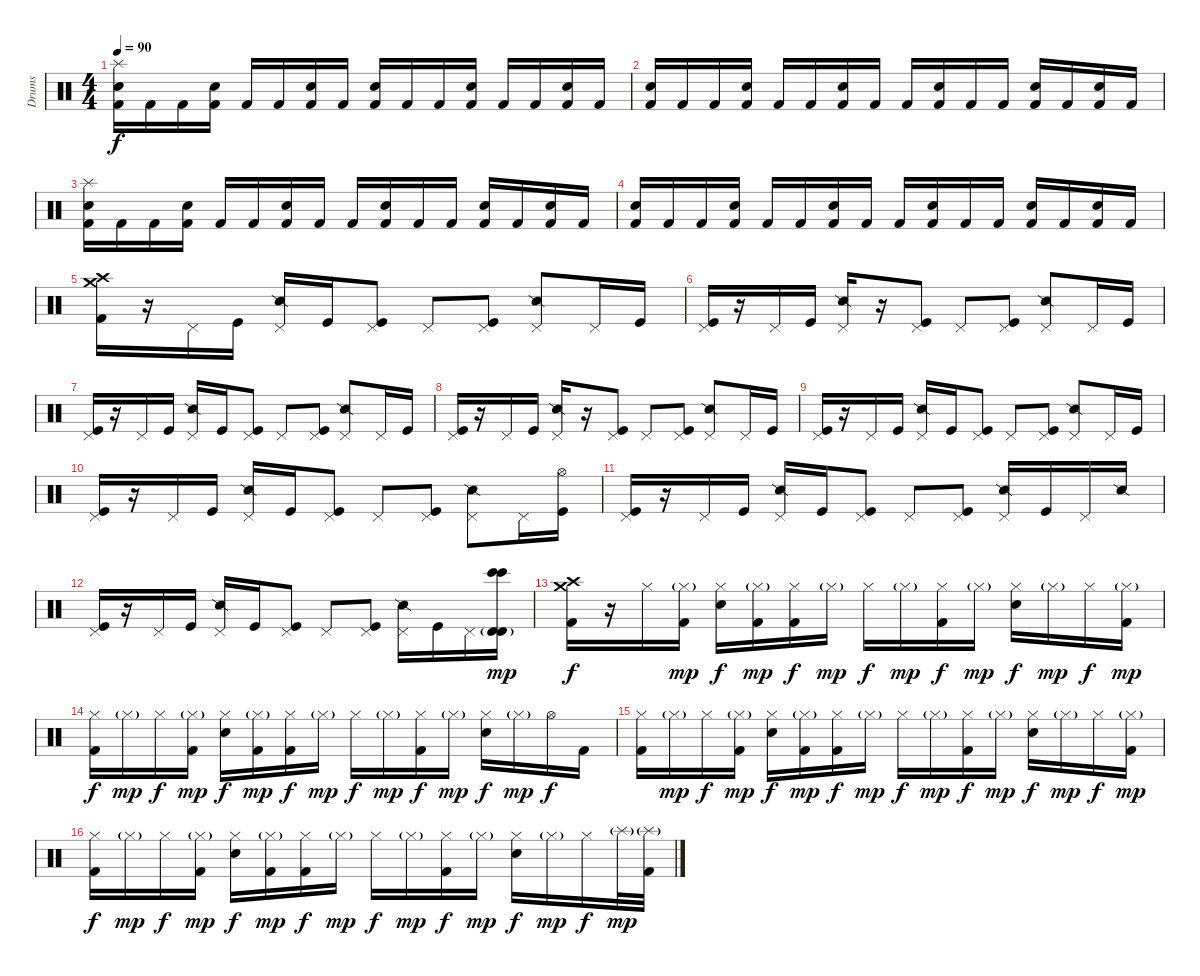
\track ("Drums" "Drums") {instrument percussion}
\staff {score}
\articulation defaults
\ts (4 4)
\tempo 90
\clef neutral
\ks c
("Splash (hit)" "Snare (hit) 2" "Kick (hit) 2").16{dy f} "Kick (hit) 2".16 "Kick (hit) 2".16 ("Snare (hit) 2" "Kick (hit) 2").16 "Kick (hit) 2".16 "Kick (hit) 2".16 ("Snare (hit) 2" "Kick (hit) 2").16 "Kick (hit) 2".16 ("Snare (hit) 2" "Kick (hit) 2").16 "Kick (hit) 2".16 "Kick (hit) 2".16 ("Snare (hit) 2" "Kick (hit) 2").16 "Kick (hit) 2".16 "Kick (hit) 2".16 ("Snare (hit) 2" "Kick (hit) 2").16 "Kick (hit) 2".16 |
("Snare (hit) 2" "Kick (hit) 2").16 "Kick (hit) 2".16 "Kick (hit) 2".16 ("Snare (hit) 2" "Kick (hit) 2").16 "Kick (hit) 2".16 "Kick (hit) 2".16 ("Snare (hit) 2" "Kick (hit) 2").16 "Kick (hit) 2".16 "Kick (hit) 2".16 ("Snare (hit) 2" "Kick (hit) 2").16 "Kick (hit) 2".16 "Kick (hit) 2".16 ("Snare (hit) 2" "Kick (hit) 2").16 "Kick (hit) 2".16 ("Snare (hit) 2" "Kick (hit) 2").16 "Kick (hit) 2".16 |
("Splash (hit)" "Snare (hit) 2" "Kick (hit) 2").16 "Kick (hit) 2".16 "Kick (hit) 2".16 ("Snare (hit) 2" "Kick (hit) 2").16 "Kick (hit) 2".16 "Kick (hit) 2".16 ("Snare (hit) 2" "Kick (hit) 2").16 "Kick (hit) 2".16 "Kick (hit) 2".16 ("Snare (hit) 2" "Kick (hit) 2").16 "Kick (hit) 2".16 "Kick (hit) 2".16 ("Snare (hit) 2" "Kick (hit) 2").16 "Kick (hit) 2".16 ("Snare (hit) 2" "Kick (hit) 2").16 "Kick (hit) 2".16 |
("Snare (hit) 2" "Kick (hit) 2").16 "Kick (hit) 2".16 "Kick (hit) 2".16 ("Snare (hit) 2" "Kick (hit) 2").16 "Kick (hit) 2".16 "Kick (hit) 2".16 ("Snare (hit) 2" "Kick (hit) 2").16 "Kick (hit) 2".16 "Kick (hit) 2".16 ("Snare (hit) 2" "Kick (hit) 2").16 "Kick (hit) 2".16 "Kick (hit) 2".16 ("Snare (hit) 2" "Kick (hit) 2").16 "Kick (hit) 2".16 ("Snare (hit) 2" "Kick (hit) 2").16 "Kick (hit) 2".16 |
("Crash medium (hit)" "Crash high (hit)" "Kick (hit) 2").16 r.16 "Pedal Hi-Hat (hit)".16 "Kick (hit)".16 ("Pedal Hi-Hat (hit)" "Snare (side stick) 2").16 "Kick (hit)".16 ("Pedal Hi-Hat (hit)" "Kick (hit)").8 "Pedal Hi-Hat (hit)".8 ("Pedal Hi-Hat (hit)" "Kick (hit)").8 ("Pedal Hi-Hat (hit)" "Snare (side stick) 2").8 "Pedal Hi-Hat (hit)".16 "Kick (hit)".16 |
("Pedal Hi-Hat (hit)" "Kick (hit)").16 r.16 "Pedal Hi-Hat (hit)".16 "Kick (hit)".16 ("Pedal Hi-Hat (hit)" "Snare (side stick) 2").16 r.16 ("Pedal Hi-Hat (hit)" "Kick (hit)").8 "Pedal Hi-Hat (hit)".8 ("Pedal Hi-Hat (hit)" "Kick (hit)").8 ("Pedal Hi-Hat (hit)" "Snare (side stick) 2").8 "Pedal Hi-Hat (hit)".16 "Kick (hit)".16 |
("Pedal Hi-Hat (hit)" "Kick (hit)").16 r.16 "Pedal Hi-Hat (hit)".16 "Kick (hit)".16 ("Pedal Hi-Hat (hit)" "Snare (side stick) 2").16 "Kick (hit)".16 ("Pedal Hi-Hat (hit)" "Kick (hit)").8 "Pedal Hi-Hat (hit)".8 ("Pedal Hi-Hat (hit)" "Kick (hit)").8 ("Pedal Hi-Hat (hit)" "Snare (side stick) 2").8 "Pedal Hi-Hat (hit)".16 "Kick (hit)".16 |
("Pedal Hi-Hat (hit)" "Kick (hit)").16 r.16 "Pedal Hi-Hat (hit)".16 "Kick (hit)".16 ("Pedal Hi-Hat (hit)" "Snare (side stick) 2").16 r.16 ("Pedal Hi-Hat (hit)" "Kick (hit)").8 "Pedal Hi-Hat (hit)".8 ("Pedal Hi-Hat (hit)" "Kick (hit)").8 ("Pedal Hi-Hat (hit)" "Snare (side stick) 2").8 "Pedal Hi-Hat (hit)".16 "Kick (hit)".16 |
("Pedal Hi-Hat (hit)" "Kick (hit)").16 r.16 "Pedal Hi-Hat (hit)".16 "Kick (hit)".16 ("Pedal Hi-Hat (hit)" "Snare (side stick) 2").16 "Kick (hit)".16 ("Pedal Hi-Hat (hit)" "Kick (hit)").8 "Pedal Hi-Hat (hit)".8 ("Pedal Hi-Hat (hit)" "Kick (hit)").8 ("Pedal Hi-Hat (hit)" "Snare (side stick) 2").8 "Pedal Hi-Hat (hit)".16 "Kick (hit)".16 |
("Pedal Hi-Hat (hit)" "Kick (hit)").16 r.16 "Pedal Hi-Hat (hit)".16 "Kick (hit)".16 ("Pedal Hi-Hat (hit)" "Snare (side stick) 2").16 "Kick (hit)".16 ("Pedal Hi-Hat (hit)" "Kick (hit)").8 "Pedal Hi-Hat (hit)".8 ("Pedal Hi-Hat (hit)" "Kick (hit)").8 ("Pedal Hi-Hat (hit)" "Snare (side stick) 2").8 "Pedal Hi-Hat (hit)".16 ("Hi-Hat (open)" "Kick (hit)").16 |
("Pedal Hi-Hat (hit)" "Kick (hit)").16 r.16 "Pedal Hi-Hat (hit)".16 "Kick (hit)".16 ("Pedal Hi-Hat (hit)" "Snare (side stick) 2").16 "Kick (hit)".16 ("Pedal Hi-Hat (hit)" "Kick (hit)").8 "Pedal Hi-Hat (hit)".8 ("Pedal Hi-Hat (hit)" "Kick (hit)").8 ("Pedal Hi-Hat (hit)" "Snare (side stick) 2").16 "Kick (hit)".16 "Pedal Hi-Hat (hit)".16 "Snare (side stick) 2".16 |
("Pedal Hi-Hat (hit)" "Kick (hit)").16 r.16 "Pedal Hi-Hat (hit)".16 "Kick (hit)".16 ("Pedal Hi-Hat (hit)" "Snare (side stick) 2").16 "Kick (hit)".16 ("Pedal Hi-Hat (hit)" "Kick (hit)").8 "Pedal Hi-Hat (hit)".8 ("Pedal Hi-Hat (hit)" "Kick (hit)").8 ("Pedal Hi-Hat (hit)" "Snare (side stick) 2").16 "Kick (hit)".16 "Pedal Hi-Hat (hit)".16 ("Bongo High (hit)" "Bongo High (hit)" "Timbale high (hit)"{g} "Timbale high (hit)"{g}).16{dy mp} |
("Crash medium (hit)" "Crash high (hit)" "Kick (hit) 2").16{dy f} r.16 "Hi-Hat (closed)".16 ("Hi-Hat (closed)"{g} "Kick (hit) 2").16{dy mp} ("Hi-Hat (closed)" "Electric Snare (hit)").16{dy f} ("Hi-Hat (closed)"{g} "Kick (hit) 2").16{dy mp} ("Hi-Hat (closed)" "Kick (hit) 2").16{dy f} "Hi-Hat (closed)"{g}.16{dy mp} "Hi-Hat (closed)".16{dy f} "Hi-Hat (closed)"{g}.16{dy mp} ("Hi-Hat (closed)" "Kick (hit) 2").16{dy f} "Hi-Hat (closed)"{g}.16{dy mp} ("Hi-Hat (closed)" "Electric Snare (hit)").16{dy f} "Hi-Hat (closed)"{g}.16{dy mp} "Hi-Hat (closed)".16{dy f} ("Hi-Hat (closed)"{g} "Kick (hit) 2").16{dy mp} |
("Hi-Hat (closed)" "Kick (hit) 2").16{dy f} "Hi-Hat (closed)"{g}.16{dy mp} "Hi-Hat (closed)".16{dy f} ("Hi-Hat (closed)"{g} "Kick (hit) 2").16{dy mp} ("Hi-Hat (closed)" "Electric Snare (hit)").16{dy f} ("Hi-Hat (closed)"{g} "Kick (hit) 2").16{dy mp} ("Hi-Hat (closed)" "Kick (hit) 2").16{dy f} "Hi-Hat (closed)"{g}.16{dy mp} "Hi-Hat (closed)".16{dy f} "Hi-Hat (closed)"{g}.16{dy mp} ("Hi-Hat (closed)" "Kick (hit) 2").16{dy f} "Hi-Hat (closed)"{g}.16{dy mp} ("Hi-Hat (closed)" "Electric Snare (hit)").16{dy f} "Hi-Hat (closed)"{g}.16{dy mp} "Hi-Hat (open)".16{dy f} "Kick (hit) 2".16 |
("Hi-Hat (closed)" "Kick (hit) 2").16 "Hi-Hat (closed)"{g}.16{dy mp} "Hi-Hat (closed)".16{dy f} ("Hi-Hat (closed)"{g} "Kick (hit) 2").16{dy mp} ("Hi-Hat (closed)" "Electric Snare (hit)").16{dy f} ("Hi-Hat (closed)"{g} "Kick (hit) 2").16{dy mp} ("Hi-Hat (closed)" "Kick (hit) 2").16{dy f} "Hi-Hat (closed)"{g}.16{dy mp} "Hi-Hat (closed)".16{dy f} "Hi-Hat (closed)"{g}.16{dy mp} ("Hi-Hat (closed)" "Kick (hit) 2").16{dy f} "Hi-Hat (closed)"{g}.16{dy mp} ("Hi-Hat (closed)" "Electric Snare (hit)").16{dy f} "Hi-Hat (closed)"{g}.16{dy mp} "Hi-Hat (closed)".16{dy f} ("Hi-Hat (closed)"{g} "Kick (hit) 2").16{dy mp} |
("Hi-Hat (closed)" "Kick (hit) 2").16{dy f} "Hi-Hat (closed)"{g}.16{dy mp} "Hi-Hat (closed)".16{dy f} ("Hi-Hat (closed)"{g} "Kick (hit) 2").16{dy mp} ("Hi-Hat (closed)" "Electric Snare (hit)").16{dy f} ("Hi-Hat (closed)"{g} "Kick (hit) 2").16{dy mp} ("Hi-Hat (closed)" "Kick (hit) 2").16{dy f} "Hi-Hat (closed)"{g}.16{dy mp} "Hi-Hat (closed)".16{dy f} "Hi-Hat (closed)"{g}.16{dy mp} ("Hi-Hat (closed)" "Kick (hit) 2").16{dy f} "Hi-Hat (closed)"{g}.16{dy mp} ("Hi-Hat (closed)" "Electric Snare (hit)").16{dy f} "Hi-Hat (closed)"{g}.16{dy mp} "Hi-Hat (closed)".16{dy f} "Splash (hit)"{g}.32{dy mp} ("Splash (hit)"{g} "Kick (hit) 2").32
